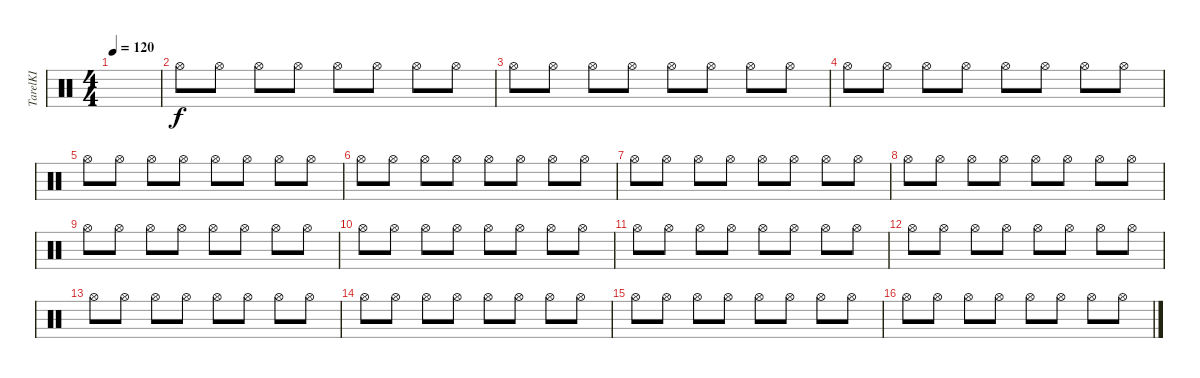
\track ("TarelKI" "TarelKI") {instrument percussion}
\staff {score}
\articulation defaults
\ts (4 4)
\tempo 120
\clef neutral
\ks c
|
"Hi-Hat (open)".8 "Hi-Hat (open)".8 "Hi-Hat (open)".8 "Hi-Hat (open)".8 "Hi-Hat (open)".8 "Hi-Hat (open)".8 "Hi-Hat (open)".8 "Hi-Hat (open)".8 |
"Hi-Hat (open)".8 "Hi-Hat (open)".8 "Hi-Hat (open)".8 "Hi-Hat (open)".8 "Hi-Hat (open)".8 "Hi-Hat (open)".8 "Hi-Hat (open)".8 "Hi-Hat (open)".8 |
"Hi-Hat (open)".8 "Hi-Hat (open)".8 "Hi-Hat (open)".8 "Hi-Hat (open)".8 "Hi-Hat (open)".8 "Hi-Hat (open)".8 "Hi-Hat (open)".8 "Hi-Hat (open)".8 |
"Hi-Hat (open)".8 "Hi-Hat (open)".8 "Hi-Hat (open)".8 "Hi-Hat (open)".8 "Hi-Hat (open)".8 "Hi-Hat (open)".8 "Hi-Hat (open)".8 "Hi-Hat (open)".8 |
"Hi-Hat (open)".8 "Hi-Hat (open)".8 "Hi-Hat (open)".8 "Hi-Hat (open)".8 "Hi-Hat (open)".8 "Hi-Hat (open)".8 "Hi-Hat (open)".8 "Hi-Hat (open)".8 |
"Hi-Hat (open)".8 "Hi-Hat (open)".8 "Hi-Hat (open)".8 "Hi-Hat (open)".8 "Hi-Hat (open)".8 "Hi-Hat (open)".8 "Hi-Hat (open)".8 "Hi-Hat (open)".8 |
"Hi-Hat (open)".8 "Hi-Hat (open)".8 "Hi-Hat (open)".8 "Hi-Hat (open)".8 "Hi-Hat (open)".8 "Hi-Hat (open)".8 "Hi-Hat (open)".8 "Hi-Hat (open)".8 |
"Hi-Hat (open)".8 "Hi-Hat (open)".8 "Hi-Hat (open)".8 "Hi-Hat (open)".8 "Hi-Hat (open)".8 "Hi-Hat (open)".8 "Hi-Hat (open)".8 "Hi-Hat (open)".8 |
"Hi-Hat (open)".8 "Hi-Hat (open)".8 "Hi-Hat (open)".8 "Hi-Hat (open)".8 "Hi-Hat (open)".8 "Hi-Hat (open)".8 "Hi-Hat (open)".8 "Hi-Hat (open)".8 |
"Hi-Hat (open)".8 "Hi-Hat (open)".8 "Hi-Hat (open)".8 "Hi-Hat (open)".8 "Hi-Hat (open)".8 "Hi-Hat (open)".8 "Hi-Hat (open)".8 "Hi-Hat (open)".8 |
"Hi-Hat (open)".8 "Hi-Hat (open)".8 "Hi-Hat (open)".8 "Hi-Hat (open)".8 "Hi-Hat (open)".8 "Hi-Hat (open)".8 "Hi-Hat (open)".8 "Hi-Hat (open)".8 |
"Hi-Hat (open)".8 "Hi-Hat (open)".8 "Hi-Hat (open)".8 "Hi-Hat (open)".8 "Hi-Hat (open)".8 "Hi-Hat (open)".8 "Hi-Hat (open)".8 "Hi-Hat (open)".8 |
"Hi-Hat (open)".8 "Hi-Hat (open)".8 "Hi-Hat (open)".8 "Hi-Hat (open)".8 "Hi-Hat (open)".8 "Hi-Hat (open)".8 "Hi-Hat (open)".8 "Hi-Hat (open)".8 |
"Hi-Hat (open)".8 "Hi-Hat (open)".8 "Hi-Hat (open)".8 "Hi-Hat (open)".8 "Hi-Hat (open)".8 "Hi-Hat (open)".8 "Hi-Hat (open)".8 "Hi-Hat (open)".8 |
"Hi-Hat (open)".8 "Hi-Hat (open)".8 "Hi-Hat (open)".8 "Hi-Hat (open)".8 "Hi-Hat (open)".8 "Hi-Hat (open)".8 "Hi-Hat (open)".8 "Hi-Hat (open)".8
